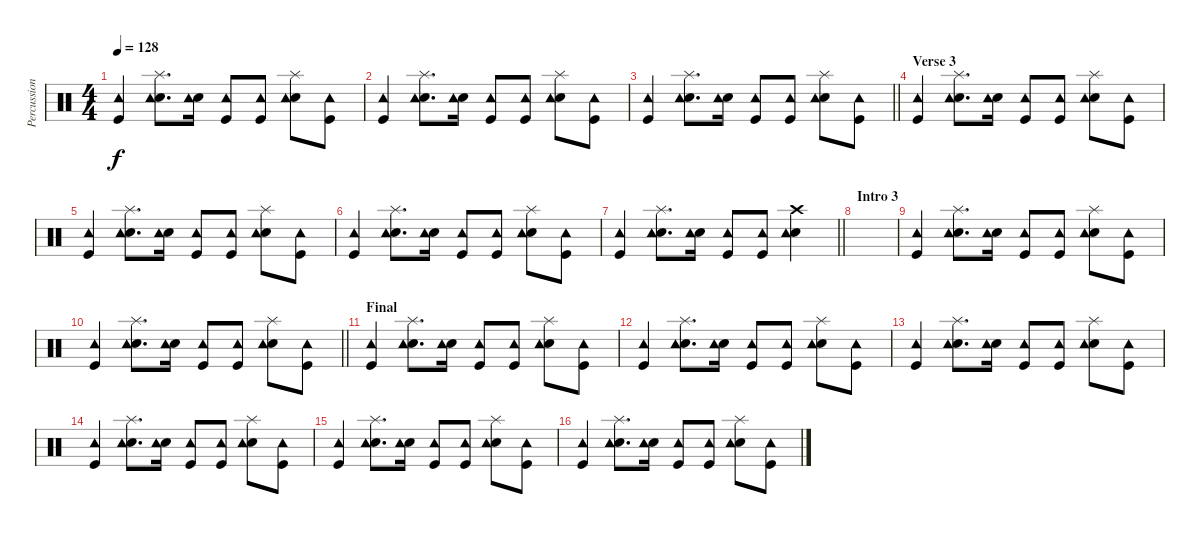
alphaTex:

\track ("Percussions" "Percussion") {instrument percussion}
\staff {score}
\articulation defaults
\ts (4 4)
\tempo 128
\clef neutral
\ks c
("Kick (hit)" "Tambourine (hit)").4{dy f} ("Snare (hit) 2" "Tambourine (hit)" "Splash (hit)").8{d} ("Snare (hit) 2" "Tambourine (hit)").16 ("Kick (hit)" "Tambourine (hit)").8 ("Kick (hit)" "Tambourine (hit)").8 ("Snare (hit) 2" "Tambourine (hit)" "Splash (hit)").8 ("Kick (hit)" "Tambourine (hit)").8 |
("Kick (hit)" "Tambourine (hit)").4 ("Snare (hit) 2" "Tambourine (hit)" "Splash (hit)").8{d} ("Snare (hit) 2" "Tambourine (hit)").16 ("Kick (hit)" "Tambourine (hit)").8 ("Kick (hit)" "Tambourine (hit)").8 ("Snare (hit) 2" "Tambourine (hit)" "Splash (hit)").8 ("Kick (hit)" "Tambourine (hit)").8 |
\barLineRight lightlight
("Kick (hit)" "Tambourine (hit)").4 ("Snare (hit) 2" "Tambourine (hit)" "Splash (hit)").8{d} ("Snare (hit) 2" "Tambourine (hit)").16 ("Kick (hit)" "Tambourine (hit)").8 ("Kick (hit)" "Tambourine (hit)").8 ("Snare (hit) 2" "Tambourine (hit)" "Splash (hit)").8 ("Kick (hit)" "Tambourine (hit)").8 |
\section ("" "Verse 3")
("Kick (hit)" "Tambourine (hit)").4 ("Snare (hit) 2" "Tambourine (hit)" "Splash (hit)").8{d} ("Snare (hit) 2" "Tambourine (hit)").16 ("Kick (hit)" "Tambourine (hit)").8 ("Kick (hit)" "Tambourine (hit)").8 ("Snare (hit) 2" "Tambourine (hit)" "Splash (hit)").8 ("Kick (hit)" "Tambourine (hit)").8 |
("Kick (hit)" "Tambourine (hit)").4 ("Snare (hit) 2" "Tambourine (hit)" "Splash (hit)").8{d} ("Snare (hit) 2" "Tambourine (hit)").16 ("Kick (hit)" "Tambourine (hit)").8 ("Kick (hit)" "Tambourine (hit)").8 ("Snare (hit) 2" "Tambourine (hit)" "Splash (hit)").8 ("Kick (hit)" "Tambourine (hit)").8 |
("Kick (hit)" "Tambourine (hit)").4 ("Snare (hit) 2" "Tambourine (hit)" "Splash (hit)").8{d} ("Snare (hit) 2" "Tambourine (hit)").16 ("Kick (hit)" "Tambourine (hit)").8 ("Kick (hit)" "Tambourine (hit)").8 ("Snare (hit) 2" "Tambourine (hit)" "Splash (hit)").8 ("Kick (hit)" "Tambourine (hit)").8 |
\barLineRight lightlight
("Kick (hit)" "Tambourine (hit)").4 ("Snare (hit) 2" "Tambourine (hit)" "Splash (hit)").8{d} ("Snare (hit) 2" "Tambourine (hit)").16 ("Kick (hit)" "Tambourine (hit)").8 ("Kick (hit)" "Tambourine (hit)").8 ("Snare (hit) 2" "Tambourine (hit)" "Crash high (hit)").4 |
\section ("" "Intro 3")
|
("Kick (hit)" "Tambourine (hit)").4 ("Snare (hit) 2" "Tambourine (hit)" "Splash (hit)").8{d} ("Snare (hit) 2" "Tambourine (hit)").16 ("Kick (hit)" "Tambourine (hit)").8 ("Kick (hit)" "Tambourine (hit)").8 ("Snare (hit) 2" "Tambourine (hit)" "Splash (hit)").8 ("Kick (hit)" "Tambourine (hit)").8 |
\barLineRight lightlight
("Kick (hit)" "Tambourine (hit)").4 ("Snare (hit) 2" "Tambourine (hit)" "Splash (hit)").8{d} ("Snare (hit) 2" "Tambourine (hit)").16 ("Kick (hit)" "Tambourine (hit)").8 ("Kick (hit)" "Tambourine (hit)").8 ("Snare (hit) 2" "Tambourine (hit)" "Splash (hit)").8 ("Kick (hit)" "Tambourine (hit)").8 |
\section ("" "Final")
("Kick (hit)" "Tambourine (hit)").4{volume 1} ("Snare (hit) 2" "Tambourine (hit)" "Splash (hit)").8{d} ("Snare (hit) 2" "Tambourine (hit)").16 ("Kick (hit)" "Tambourine (hit)").8 ("Kick (hit)" "Tambourine (hit)").8 ("Snare (hit) 2" "Tambourine (hit)" "Splash (hit)").8 ("Kick (hit)" "Tambourine (hit)").8 |
("Kick (hit)" "Tambourine (hit)").4 ("Snare (hit) 2" "Tambourine (hit)" "Splash (hit)").8{d} ("Snare (hit) 2" "Tambourine (hit)").16 ("Kick (hit)" "Tambourine (hit)").8 ("Kick (hit)" "Tambourine (hit)").8 ("Snare (hit) 2" "Tambourine (hit)" "Splash (hit)").8 ("Kick (hit)" "Tambourine (hit)").8 |
("Kick (hit)" "Tambourine (hit)").4 ("Snare (hit) 2" "Tambourine (hit)" "Splash (hit)").8{d} ("Snare (hit) 2" "Tambourine (hit)").16 ("Kick (hit)" "Tambourine (hit)").8 ("Kick (hit)" "Tambourine (hit)").8 ("Snare (hit) 2" "Tambourine (hit)" "Splash (hit)").8 ("Kick (hit)" "Tambourine (hit)").8 |
("Kick (hit)" "Tambourine (hit)").4 ("Snare (hit) 2" "Tambourine (hit)" "Splash (hit)").8{d} ("Snare (hit) 2" "Tambourine (hit)").16 ("Kick (hit)" "Tambourine (hit)").8 ("Kick (hit)" "Tambourine (hit)").8 ("Snare (hit) 2" "Tambourine (hit)" "Splash (hit)").8 ("Kick (hit)" "Tambourine (hit)").8 |
("Kick (hit)" "Tambourine (hit)").4 ("Snare (hit) 2" "Tambourine (hit)" "Splash (hit)").8{d} ("Snare (hit) 2" "Tambourine (hit)").16 ("Kick (hit)" "Tambourine (hit)").8 ("Kick (hit)" "Tambourine (hit)").8 ("Snare (hit) 2" "Tambourine (hit)" "Splash (hit)").8 ("Kick (hit)" "Tambourine (hit)").8 |
("Kick (hit)" "Tambourine (hit)").4 ("Snare (hit) 2" "Tambourine (hit)" "Splash (hit)").8{d} ("Snare (hit) 2" "Tambourine (hit)").16 ("Kick (hit)" "Tambourine (hit)").8 ("Kick (hit)" "Tambourine (hit)").8 ("Snare (hit) 2" "Tambourine (hit)" "Splash (hit)").8 ("Kick (hit)" "Tambourine (hit)").8
